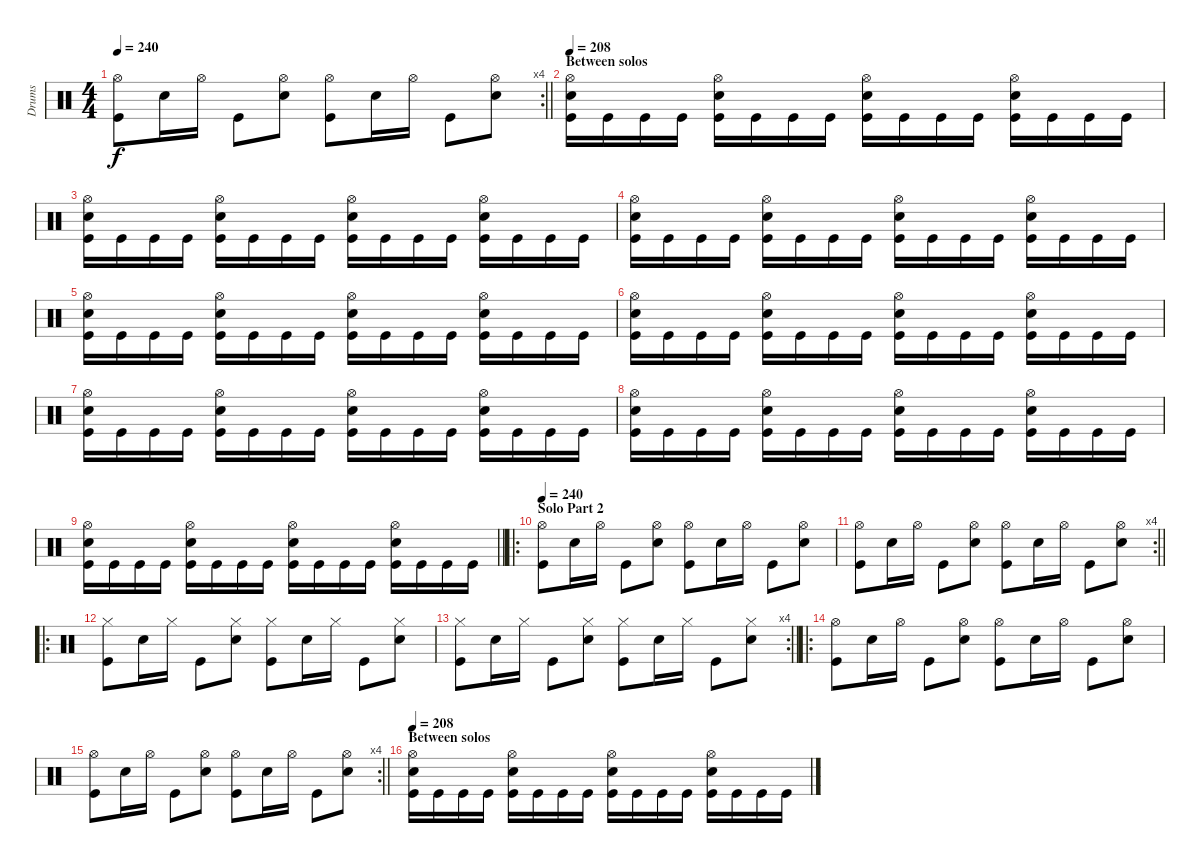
\track ("Drums" "Drums") {instrument percussion}
\staff {score}
\articulation defaults
\rc 4
\ts (4 4)
\tempo 240
\clef neutral
\barLineRight lightlight
\ks c
("Hi-Hat (open)" "Kick (hit)").8{dy f} "Snare (hit) 2".16 "Hi-Hat (open)".16 "Kick (hit)".8 ("Hi-Hat (open)" "Snare (hit) 2").8 ("Hi-Hat (open)" "Kick (hit)").8 "Snare (hit) 2".16 "Hi-Hat (open)".16 "Kick (hit)".8 ("Hi-Hat (open)" "Snare (hit) 2").8 |
\section ("" "Between solos")
\tempo 208
("Hi-Hat (open)" "Snare (hit) 2" "Kick (hit)").16 "Kick (hit)".16 "Kick (hit)".16 "Kick (hit)".16 ("Hi-Hat (open)" "Snare (hit) 2" "Kick (hit)").16 "Kick (hit)".16 "Kick (hit)".16 "Kick (hit)".16 ("Hi-Hat (open)" "Snare (hit) 2" "Kick (hit)").16 "Kick (hit)".16 "Kick (hit)".16 "Kick (hit)".16 ("Hi-Hat (open)" "Snare (hit) 2" "Kick (hit)").16 "Kick (hit)".16 "Kick (hit)".16 "Kick (hit)".16 |
("Hi-Hat (open)" "Snare (hit) 2" "Kick (hit)").16 "Kick (hit)".16 "Kick (hit)".16 "Kick (hit)".16 ("Hi-Hat (open)" "Snare (hit) 2" "Kick (hit)").16 "Kick (hit)".16 "Kick (hit)".16 "Kick (hit)".16 ("Hi-Hat (open)" "Snare (hit) 2" "Kick (hit)").16 "Kick (hit)".16 "Kick (hit)".16 "Kick (hit)".16 ("Hi-Hat (open)" "Snare (hit) 2" "Kick (hit)").16 "Kick (hit)".16 "Kick (hit)".16 "Kick (hit)".16 |
("Hi-Hat (open)" "Snare (hit) 2" "Kick (hit)").16 "Kick (hit)".16 "Kick (hit)".16 "Kick (hit)".16 ("Hi-Hat (open)" "Snare (hit) 2" "Kick (hit)").16 "Kick (hit)".16 "Kick (hit)".16 "Kick (hit)".16 ("Hi-Hat (open)" "Snare (hit) 2" "Kick (hit)").16 "Kick (hit)".16 "Kick (hit)".16 "Kick (hit)".16 ("Hi-Hat (open)" "Snare (hit) 2" "Kick (hit)").16 "Kick (hit)".16 "Kick (hit)".16 "Kick (hit)".16 |
("Hi-Hat (open)" "Snare (hit) 2" "Kick (hit)").16 "Kick (hit)".16 "Kick (hit)".16 "Kick (hit)".16 ("Hi-Hat (open)" "Snare (hit) 2" "Kick (hit)").16 "Kick (hit)".16 "Kick (hit)".16 "Kick (hit)".16 ("Hi-Hat (open)" "Snare (hit) 2" "Kick (hit)").16 "Kick (hit)".16 "Kick (hit)".16 "Kick (hit)".16 ("Hi-Hat (open)" "Snare (hit) 2" "Kick (hit)").16 "Kick (hit)".16 "Kick (hit)".16 "Kick (hit)".16 |
("Hi-Hat (open)" "Snare (hit) 2" "Kick (hit)").16 "Kick (hit)".16 "Kick (hit)".16 "Kick (hit)".16 ("Hi-Hat (open)" "Snare (hit) 2" "Kick (hit)").16 "Kick (hit)".16 "Kick (hit)".16 "Kick (hit)".16 ("Hi-Hat (open)" "Snare (hit) 2" "Kick (hit)").16 "Kick (hit)".16 "Kick (hit)".16 "Kick (hit)".16 ("Hi-Hat (open)" "Snare (hit) 2" "Kick (hit)").16 "Kick (hit)".16 "Kick (hit)".16 "Kick (hit)".16 |
("Hi-Hat (open)" "Snare (hit) 2" "Kick (hit)").16 "Kick (hit)".16 "Kick (hit)".16 "Kick (hit)".16 ("Hi-Hat (open)" "Snare (hit) 2" "Kick (hit)").16 "Kick (hit)".16 "Kick (hit)".16 "Kick (hit)".16 ("Hi-Hat (open)" "Snare (hit) 2" "Kick (hit)").16 "Kick (hit)".16 "Kick (hit)".16 "Kick (hit)".16 ("Hi-Hat (open)" "Snare (hit) 2" "Kick (hit)").16 "Kick (hit)".16 "Kick (hit)".16 "Kick (hit)".16 |
("Hi-Hat (open)" "Snare (hit) 2" "Kick (hit)").16 "Kick (hit)".16 "Kick (hit)".16 "Kick (hit)".16 ("Hi-Hat (open)" "Snare (hit) 2" "Kick (hit)").16 "Kick (hit)".16 "Kick (hit)".16 "Kick (hit)".16 ("Hi-Hat (open)" "Snare (hit) 2" "Kick (hit)").16 "Kick (hit)".16 "Kick (hit)".16 "Kick (hit)".16 ("Hi-Hat (open)" "Snare (hit) 2" "Kick (hit)").16 "Kick (hit)".16 "Kick (hit)".16 "Kick (hit)".16 |
\barLineRight lightlight
("Hi-Hat (open)" "Snare (hit) 2" "Kick (hit)").16 "Kick (hit)".16 "Kick (hit)".16 "Kick (hit)".16 ("Hi-Hat (open)" "Snare (hit) 2" "Kick (hit)").16 "Kick (hit)".16 "Kick (hit)".16 "Kick (hit)".16 ("Hi-Hat (open)" "Snare (hit) 2" "Kick (hit)").16 "Kick (hit)".16 "Kick (hit)".16 "Kick (hit)".16 ("Hi-Hat (open)" "Snare (hit) 2" "Kick (hit)").16 "Kick (hit)".16 "Kick (hit)".16 "Kick (hit)".16 |
\ro
\section ("" "Solo Part 2")
\tempo 240
("Hi-Hat (open)" "Kick (hit)").8 "Snare (hit) 2".16 "Hi-Hat (open)".16 "Kick (hit)".8 ("Hi-Hat (open)" "Snare (hit) 2").8 ("Hi-Hat (open)" "Kick (hit)").8 "Snare (hit) 2".16 "Hi-Hat (open)".16 "Kick (hit)".8 ("Hi-Hat (open)" "Snare (hit) 2").8 |
\rc 4
\barLineRight lightlight
("Hi-Hat (open)" "Kick (hit)").8 "Snare (hit) 2".16 "Hi-Hat (open)".16 "Kick (hit)".8 ("Hi-Hat (open)" "Snare (hit) 2").8 ("Hi-Hat (open)" "Kick (hit)").8 "Snare (hit) 2".16 "Hi-Hat (open)".16 "Kick (hit)".8 ("Hi-Hat (open)" "Snare (hit) 2").8 |
\ro
("Hi-Hat (closed)" "Kick (hit)").8 "Snare (hit) 2".16 "Hi-Hat (closed)".16 "Kick (hit)".8 ("Hi-Hat (closed)" "Snare (hit) 2").8 ("Hi-Hat (closed)" "Kick (hit)").8 "Snare (hit) 2".16 "Hi-Hat (closed)".16 "Kick (hit)".8 ("Hi-Hat (closed)" "Snare (hit) 2").8 |
\rc 4
\barLineRight lightlight
("Hi-Hat (closed)" "Kick (hit)").8 "Snare (hit) 2".16 "Hi-Hat (closed)".16 "Kick (hit)".8 ("Hi-Hat (closed)" "Snare (hit) 2").8 ("Hi-Hat (closed)" "Kick (hit)").8 "Snare (hit) 2".16 "Hi-Hat (closed)".16 "Kick (hit)".8 ("Hi-Hat (closed)" "Snare (hit) 2").8 |
\ro
("Hi-Hat (open)" "Kick (hit)").8 "Snare (hit) 2".16 "Hi-Hat (open)".16 "Kick (hit)".8 ("Hi-Hat (open)" "Snare (hit) 2").8 ("Hi-Hat (open)" "Kick (hit)").8 "Snare (hit) 2".16 "Hi-Hat (open)".16 "Kick (hit)".8 ("Hi-Hat (open)" "Snare (hit) 2").8 |
\rc 4
\barLineRight lightlight
("Hi-Hat (open)" "Kick (hit)").8 "Snare (hit) 2".16 "Hi-Hat (open)".16 "Kick (hit)".8 ("Hi-Hat (open)" "Snare (hit) 2").8 ("Hi-Hat (open)" "Kick (hit)").8 "Snare (hit) 2".16 "Hi-Hat (open)".16 "Kick (hit)".8 ("Hi-Hat (open)" "Snare (hit) 2").8 |
\section ("" "Between solos")
\tempo 208
("Hi-Hat (open)" "Snare (hit) 2" "Kick (hit)").16 "Kick (hit)".16 "Kick (hit)".16 "Kick (hit)".16 ("Hi-Hat (open)" "Snare (hit) 2" "Kick (hit)").16 "Kick (hit)".16 "Kick (hit)".16 "Kick (hit)".16 ("Hi-Hat (open)" "Snare (hit) 2" "Kick (hit)").16 "Kick (hit)".16 "Kick (hit)".16 "Kick (hit)".16 ("Hi-Hat (open)" "Snare (hit) 2" "Kick (hit)").16 "Kick (hit)".16 "Kick (hit)".16 "Kick (hit)".16
